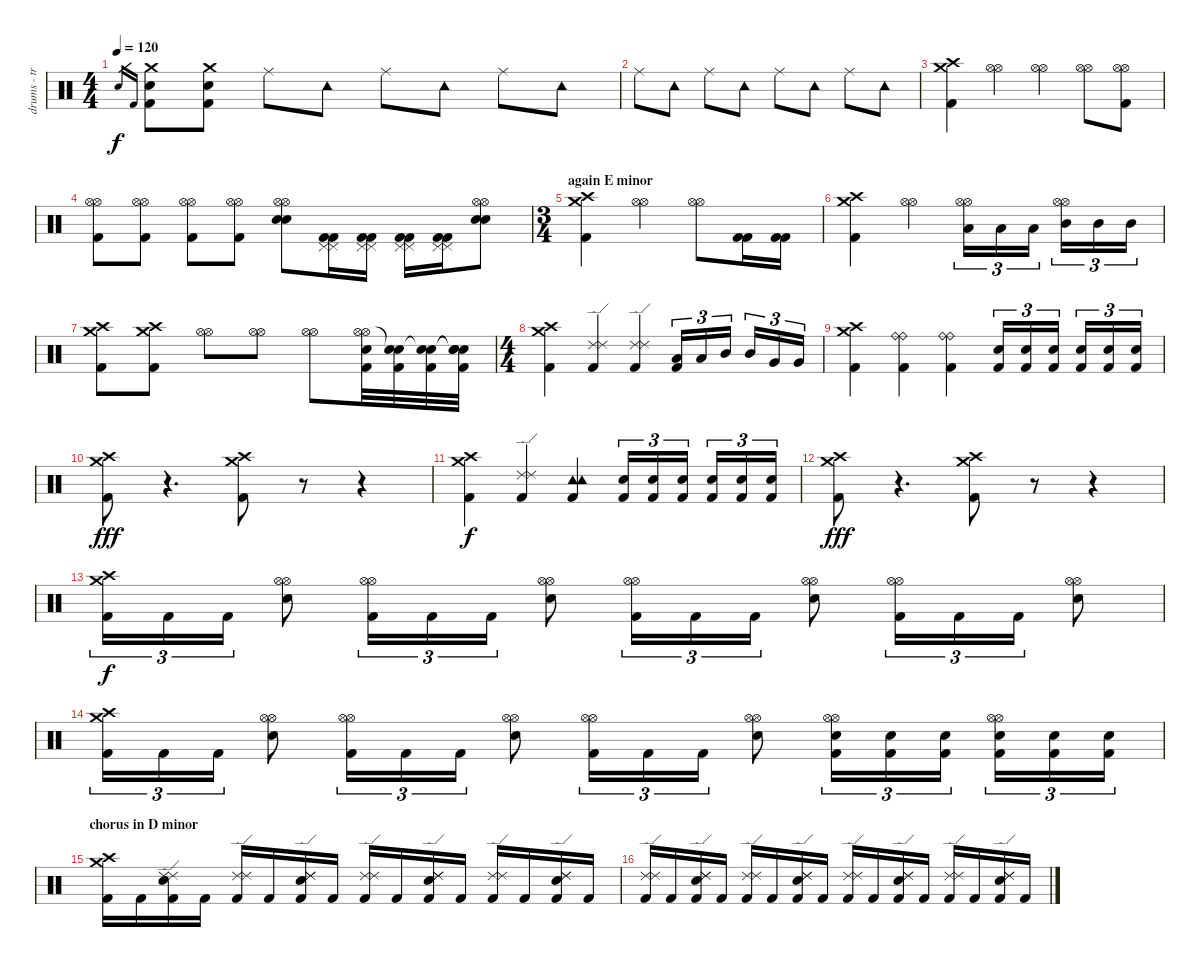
\track ("drums - trash and prog sections" "drums - tr") {instrument percussion}
\staff {score}
\articulation defaults
\ts (4 4)
\tempo 120
\clef neutral
\ks c "Snare (hit) 2".16{gr dy f} "Kick (hit) 2".16{gr}
("Crash medium (hit)" "Snare (hit) 2" "Kick (hit) 2").8 ("Crash medium (hit)" "Snare (hit) 2" "Kick (hit) 2").8 "Ride (middle)".8 "Tambourine (hit)".8 "Ride (middle)".8 "Tambourine (hit)".8 "Ride (middle)".8 "Tambourine (hit)".8 |
"Ride (middle)".8 "Tambourine (hit)".8 "Ride (middle)".8 "Tambourine (hit)".8 "Ride (middle)".8 "Tambourine (hit)".8 "Ride (middle)".8 "Tambourine (hit)".8 |
("Crash medium (hit)" "Crash high (hit)" "Kick (hit) 2").4 ("Hi-Hat (open)" "Hi-Hat (open)").4 ("Hi-Hat (open)" "Hi-Hat (open)").4 ("Hi-Hat (open)" "Hi-Hat (open)").8 ("Hi-Hat (open)" "Hi-Hat (open)" "Kick (hit) 2").8 |
("Hi-Hat (open)" "Hi-Hat (open)" "Kick (hit) 2").8 ("Hi-Hat (open)" "Hi-Hat (open)" "Kick (hit) 2").8 ("Hi-Hat (open)" "Hi-Hat (open)" "Kick (hit) 2").8 ("Hi-Hat (open)" "Hi-Hat (open)" "Kick (hit) 2").8 ("Hi-Hat (open)" "Hi-Hat (open)" "Snare (hit) 2" "Snare (hit) 2").8 ("Pedal Hi-Hat (hit)" "Pedal Hi-Hat (hit)" "Kick (hit) 2" "Kick (hit) 2").16 ("Pedal Hi-Hat (hit)" "Pedal Hi-Hat (hit)" "Kick (hit) 2" "Kick (hit) 2").16 ("Pedal Hi-Hat (hit)" "Pedal Hi-Hat (hit)" "Kick (hit) 2" "Kick (hit) 2").16 ("Pedal Hi-Hat (hit)" "Pedal Hi-Hat (hit)" "Kick (hit) 2" "Kick (hit) 2").16 ("Hi-Hat (open)" "Hi-Hat (open)" "Snare (hit) 2" "Snare (hit) 2").8 |
\ts (3 4)
\section ("" "again E minor")
("Crash medium (hit)" "Crash high (hit)" "Kick (hit) 2").4 ("Hi-Hat (open)" "Hi-Hat (open)").4 ("Hi-Hat (open)" "Hi-Hat (open)").8 ("Kick (hit) 2" "Kick (hit) 2").16 ("Kick (hit) 2" "Kick (hit) 2").16 |
("Crash medium (hit)" "Crash high (hit)" "Kick (hit) 2").4 ("Hi-Hat (open)" "Hi-Hat (open)").4 ("Hi-Hat (open)" "Hi-Hat (open)" "Low Tom (hit)").16{tu (3 2)} "Low Tom (hit)".16{tu (3 2)} "Low Tom (hit)".16{tu (3 2)} ("Hi-Hat (open)" "Hi-Hat (open)" "Mid Tom (hit)").16{tu (3 2)} "Mid Tom (hit)".16{tu (3 2)} "Mid Tom (hit)".16{tu (3 2)} |
("Crash medium (hit)" "Crash high (hit)" "Kick (hit) 2").8 ("Crash medium (hit)" "Crash high (hit)" "Kick (hit) 2").8 ("Hi-Hat (open)" "Hi-Hat (open)").8 ("Hi-Hat (open)" "Hi-Hat (open)").8 ("Hi-Hat (open)" "Hi-Hat (open)").8 ("Hi-Hat (open)" "Hi-Hat (open)" "Snare (hit) 2" "Kick (hit) 2").32 ("Snare (hit)"{t} "Snare (hit) 2" "Kick (hit) 2").32 ("Snare (hit)"{t} "Snare (hit) 2" "Kick (hit) 2").32 ("Snare (hit)"{t} "Snare (hit)"{t} "Snare (hit) 2" "Kick (hit) 2").32 |
\ts (4 4)
("Crash medium (hit)" "Crash high (hit)" "Kick (hit) 2").4 ("Ride (edge) 2" "Ride (edge) 2" "Kick (hit) 2").4 ("Ride (edge) 2" "Ride (edge) 2" "Kick (hit) 2").4 ("Low Tom (hit)" "Kick (hit) 2").16{tu (3 2)} "Low Tom (hit)".16{tu (3 2)} "Mid Tom (hit)".16{tu (3 2)} "Mid Tom (hit)".16{tu (3 2)} "Very Low Tom (hit)".16{tu (3 2)} "Very Low Tom (hit)".16{tu (3 2)} |
("Crash medium (hit)" "Crash high (hit)" "Kick (hit) 2").4 ("Ride (bell)" "Ride (bell)" "Kick (hit) 2").4 ("Ride (bell)" "Ride (bell)" "Kick (hit) 2").4 ("Snare (hit) 2" "Kick (hit) 2").16{tu (3 2)} ("Snare (hit) 2" "Kick (hit) 2").16{tu (3 2)} ("Snare (hit) 2" "Kick (hit) 2").16{tu (3 2)} ("Snare (hit) 2" "Kick (hit) 2").16{tu (3 2)} ("Snare (hit) 2" "Kick (hit) 2").16{tu (3 2)} ("Snare (hit) 2" "Kick (hit) 2").16{tu (3 2)} |
("Crash medium (hit)" "Crash high (hit)" "Kick (hit) 2").8{dy fff} r.4{d} ("Crash medium (hit)" "Crash high (hit)" "Kick (hit) 2").8 r.8 r.4 |
("Crash medium (hit)" "Crash high (hit)" "Kick (hit) 2").4{dy f} ("Ride (edge) 2" "Ride (edge) 2" "Kick (hit) 2").4 ("Tambourine (hit)" "Tambourine (hit)" "Kick (hit) 2").4 ("Snare (hit) 2" "Kick (hit) 2").16{tu (3 2)} ("Snare (hit) 2" "Kick (hit) 2").16{tu (3 2)} ("Snare (hit) 2" "Kick (hit) 2").16{tu (3 2)} ("Snare (hit) 2" "Kick (hit) 2").16{tu (3 2)} ("Snare (hit) 2" "Kick (hit) 2").16{tu (3 2)} ("Snare (hit) 2" "Kick (hit) 2").16{tu (3 2)} |
("Crash medium (hit)" "Crash high (hit)" "Kick (hit) 2").8{dy fff} r.4{d} ("Crash medium (hit)" "Crash high (hit)" "Kick (hit) 2").8 r.8 r.4 |
("Crash medium (hit)" "Crash high (hit)" "Kick (hit) 2").16{tu (3 2) dy f} "Kick (hit) 2".16{tu (3 2)} "Kick (hit) 2".16{tu (3 2)} ("Hi-Hat (open)" "Hi-Hat (open)" "Snare (hit) 2").8 ("Hi-Hat (open)" "Hi-Hat (open)" "Kick (hit) 2").16{tu (3 2)} "Kick (hit) 2".16{tu (3 2)} "Kick (hit) 2".16{tu (3 2)} ("Hi-Hat (open)" "Hi-Hat (open)" "Snare (hit) 2").8 ("Hi-Hat (open)" "Hi-Hat (open)" "Kick (hit) 2").16{tu (3 2)} "Kick (hit) 2".16{tu (3 2)} "Kick (hit) 2".16{tu (3 2)} ("Hi-Hat (open)" "Hi-Hat (open)" "Snare (hit) 2").8 ("Hi-Hat (open)" "Hi-Hat (open)" "Kick (hit) 2").16{tu (3 2)} "Kick (hit) 2".16{tu (3 2)} "Kick (hit) 2".16{tu (3 2)} ("Hi-Hat (open)" "Hi-Hat (open)" "Snare (hit) 2").8 |
("Crash medium (hit)" "Crash high (hit)" "Kick (hit) 2").16{tu (3 2)} "Kick (hit) 2".16{tu (3 2)} "Kick (hit) 2".16{tu (3 2)} ("Hi-Hat (open)" "Hi-Hat (open)" "Snare (hit) 2").8 ("Hi-Hat (open)" "Hi-Hat (open)" "Kick (hit) 2").16{tu (3 2)} "Kick (hit) 2".16{tu (3 2)} "Kick (hit) 2".16{tu (3 2)} ("Hi-Hat (open)" "Hi-Hat (open)" "Snare (hit) 2").8 ("Hi-Hat (open)" "Hi-Hat (open)" "Kick (hit) 2").16{tu (3 2)} "Kick (hit) 2".16{tu (3 2)} "Kick (hit) 2".16{tu (3 2)} ("Hi-Hat (open)" "Hi-Hat (open)" "Snare (hit) 2").8 ("Hi-Hat (open)" "Hi-Hat (open)" "Snare (hit) 2" "Kick (hit) 2").16{tu (3 2)} ("Snare (hit) 2" "Kick (hit) 2").16{tu (3 2)} ("Snare (hit) 2" "Kick (hit) 2").16{tu (3 2)} ("Hi-Hat (open)" "Hi-Hat (open)" "Snare (hit) 2" "Kick (hit) 2").16{tu (3 2)} ("Snare (hit) 2" "Kick (hit) 2").16{tu (3 2)} ("Snare (hit) 2" "Kick (hit) 2").16{tu (3 2)} |
\section ("" "chorus in D minor")
("Crash medium (hit)" "Crash high (hit)" "Kick (hit) 2").16 "Kick (hit) 2".16 ("Ride (edge) 2" "Ride (edge) 2" "Snare (hit) 2" "Kick (hit) 2").16 "Kick (hit) 2".16 ("Ride (edge) 2" "Ride (edge) 2" "Kick (hit) 2").16 "Kick (hit) 2".16 ("Ride (edge) 2" "Ride (edge) 2" "Snare (hit) 2" "Kick (hit) 2").16 "Kick (hit) 2".16 ("Ride (edge) 2" "Ride (edge) 2" "Kick (hit) 2").16 "Kick (hit) 2".16 ("Ride (edge) 2" "Ride (edge) 2" "Snare (hit) 2" "Kick (hit) 2").16 "Kick (hit) 2".16 ("Ride (edge) 2" "Ride (edge) 2" "Kick (hit) 2").16 "Kick (hit) 2".16 ("Ride (edge) 2" "Ride (edge) 2" "Snare (hit) 2" "Kick (hit) 2").16 "Kick (hit) 2".16 |
("Ride (edge) 2" "Ride (edge) 2" "Kick (hit) 2").16 "Kick (hit) 2".16 ("Ride (edge) 2" "Ride (edge) 2" "Snare (hit) 2" "Kick (hit) 2").16 "Kick (hit) 2".16 ("Ride (edge) 2" "Ride (edge) 2" "Kick (hit) 2").16 "Kick (hit) 2".16 ("Ride (edge) 2" "Ride (edge) 2" "Snare (hit) 2" "Kick (hit) 2").16 "Kick (hit) 2".16 ("Ride (edge) 2" "Ride (edge) 2" "Kick (hit) 2").16 "Kick (hit) 2".16 ("Ride (edge) 2" "Ride (edge) 2" "Snare (hit) 2" "Kick (hit) 2").16 "Kick (hit) 2".16 ("Ride (edge) 2" "Ride (edge) 2" "Kick (hit) 2").16 "Kick (hit) 2".16 ("Ride (edge) 2" "Ride (edge) 2" "Snare (hit) 2" "Kick (hit) 2").16 "Kick (hit) 2".16
